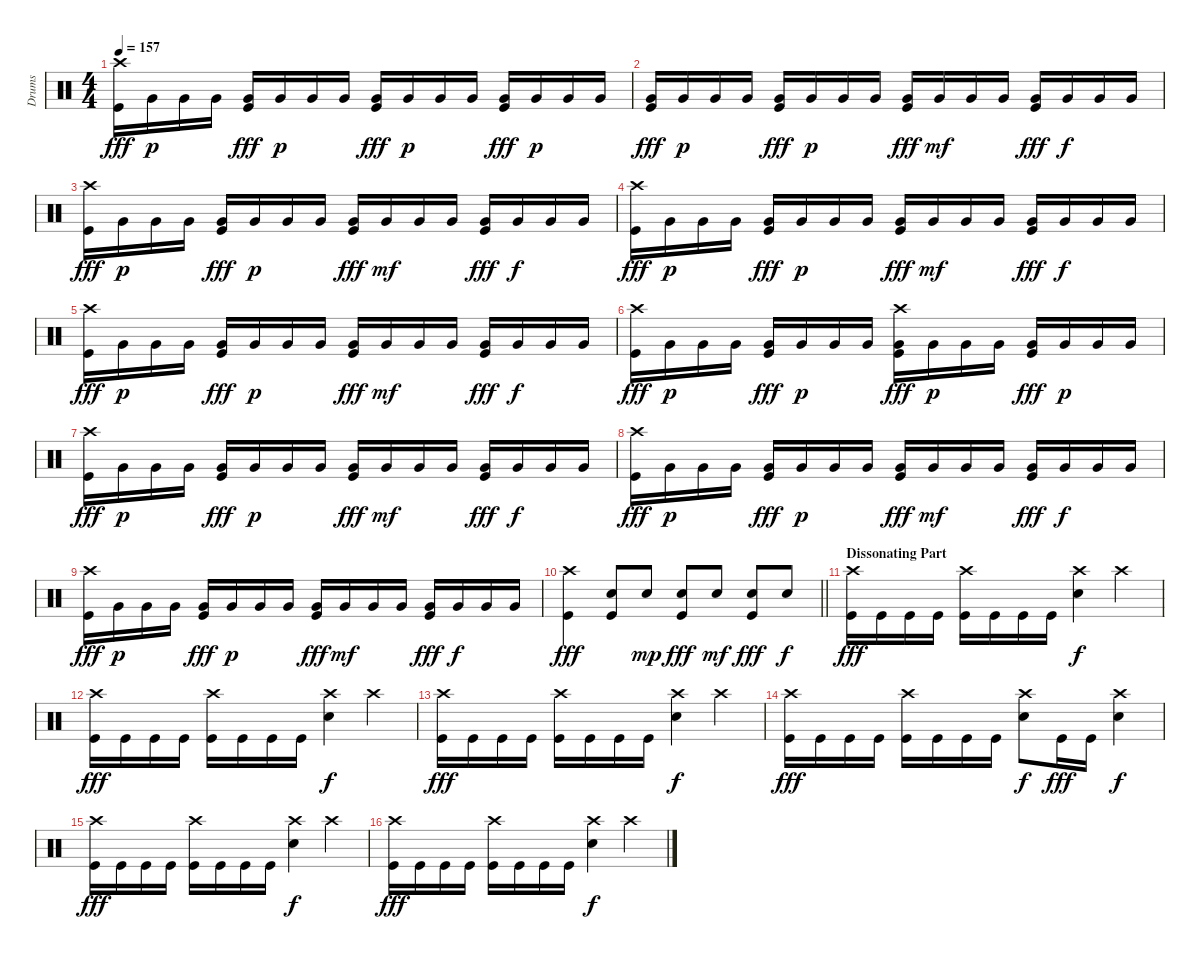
\track ("Drums" "Drums") {instrument percussion}
\staff {score}
\articulation defaults
\ts (4 4)
\tempo 157
\clef neutral
\ks c
("Crash high (hit)" "Kick (hit)").16{dy fff} "Very Low Tom (hit)".16{dy p} "Very Low Tom (hit)".16 "Very Low Tom (hit)".16 ("Very Low Tom (hit)" "Kick (hit)").16{dy fff} "Very Low Tom (hit)".16{dy p} "Very Low Tom (hit)".16 "Very Low Tom (hit)".16 ("Very Low Tom (hit)" "Kick (hit)").16{dy fff} "Very Low Tom (hit)".16{dy p} "Very Low Tom (hit)".16 "Very Low Tom (hit)".16 ("Very Low Tom (hit)" "Kick (hit)").16{dy fff} "Very Low Tom (hit)".16{dy p} "Very Low Tom (hit)".16 "Very Low Tom (hit)".16 |
("Very Low Tom (hit)" "Kick (hit)").16{dy fff} "Very Low Tom (hit)".16{dy p} "Very Low Tom (hit)".16 "Very Low Tom (hit)".16 ("Very Low Tom (hit)" "Kick (hit)").16{dy fff} "Very Low Tom (hit)".16{dy p} "Very Low Tom (hit)".16 "Very Low Tom (hit)".16 ("Very Low Tom (hit)" "Kick (hit)").16{dy fff} "Very Low Tom (hit)".16{dy mf} "Very Low Tom (hit)".16 "Very Low Tom (hit)".16 ("Very Low Tom (hit)" "Kick (hit)").16{dy fff} "Very Low Tom (hit)".16{dy f} "Very Low Tom (hit)".16 "Very Low Tom (hit)".16 |
("Crash high (hit)" "Kick (hit)").16{dy fff} "Very Low Tom (hit)".16{dy p} "Very Low Tom (hit)".16 "Very Low Tom (hit)".16 ("Very Low Tom (hit)" "Kick (hit)").16{dy fff} "Very Low Tom (hit)".16{dy p} "Very Low Tom (hit)".16 "Very Low Tom (hit)".16 ("Very Low Tom (hit)" "Kick (hit)").16{dy fff} "Very Low Tom (hit)".16{dy mf} "Very Low Tom (hit)".16 "Very Low Tom (hit)".16 ("Very Low Tom (hit)" "Kick (hit)").16{dy fff} "Very Low Tom (hit)".16{dy f} "Very Low Tom (hit)".16 "Very Low Tom (hit)".16 |
("Crash high (hit)" "Kick (hit)").16{dy fff} "Very Low Tom (hit)".16{dy p} "Very Low Tom (hit)".16 "Very Low Tom (hit)".16 ("Very Low Tom (hit)" "Kick (hit)").16{dy fff} "Very Low Tom (hit)".16{dy p} "Very Low Tom (hit)".16 "Very Low Tom (hit)".16 ("Very Low Tom (hit)" "Kick (hit)").16{dy fff} "Very Low Tom (hit)".16{dy mf} "Very Low Tom (hit)".16 "Very Low Tom (hit)".16 ("Very Low Tom (hit)" "Kick (hit)").16{dy fff} "Very Low Tom (hit)".16{dy f} "Very Low Tom (hit)".16 "Very Low Tom (hit)".16 |
("Crash high (hit)" "Kick (hit)").16{dy fff} "Very Low Tom (hit)".16{dy p} "Very Low Tom (hit)".16 "Very Low Tom (hit)".16 ("Very Low Tom (hit)" "Kick (hit)").16{dy fff} "Very Low Tom (hit)".16{dy p} "Very Low Tom (hit)".16 "Very Low Tom (hit)".16 ("Very Low Tom (hit)" "Kick (hit)").16{dy fff} "Very Low Tom (hit)".16{dy mf} "Very Low Tom (hit)".16 "Very Low Tom (hit)".16 ("Very Low Tom (hit)" "Kick (hit)").16{dy fff} "Very Low Tom (hit)".16{dy f} "Very Low Tom (hit)".16 "Very Low Tom (hit)".16 |
("Crash high (hit)" "Kick (hit)").16{dy fff} "Very Low Tom (hit)".16{dy p} "Very Low Tom (hit)".16 "Very Low Tom (hit)".16 ("Very Low Tom (hit)" "Kick (hit)").16{dy fff} "Very Low Tom (hit)".16{dy p} "Very Low Tom (hit)".16 "Very Low Tom (hit)".16 ("Crash high (hit)" "Very Low Tom (hit)" "Kick (hit)").16{dy fff} "Very Low Tom (hit)".16{dy p} "Very Low Tom (hit)".16 "Very Low Tom (hit)".16 ("Very Low Tom (hit)" "Kick (hit)").16{dy fff} "Very Low Tom (hit)".16{dy p} "Very Low Tom (hit)".16 "Very Low Tom (hit)".16 |
("Crash high (hit)" "Kick (hit)").16{dy fff} "Very Low Tom (hit)".16{dy p} "Very Low Tom (hit)".16 "Very Low Tom (hit)".16 ("Very Low Tom (hit)" "Kick (hit)").16{dy fff} "Very Low Tom (hit)".16{dy p} "Very Low Tom (hit)".16 "Very Low Tom (hit)".16 ("Very Low Tom (hit)" "Kick (hit)").16{dy fff} "Very Low Tom (hit)".16{dy mf} "Very Low Tom (hit)".16 "Very Low Tom (hit)".16 ("Very Low Tom (hit)" "Kick (hit)").16{dy fff} "Very Low Tom (hit)".16{dy f} "Very Low Tom (hit)".16 "Very Low Tom (hit)".16 |
("Crash high (hit)" "Kick (hit)").16{dy fff} "Very Low Tom (hit)".16{dy p} "Very Low Tom (hit)".16 "Very Low Tom (hit)".16 ("Very Low Tom (hit)" "Kick (hit)").16{dy fff} "Very Low Tom (hit)".16{dy p} "Very Low Tom (hit)".16 "Very Low Tom (hit)".16 ("Very Low Tom (hit)" "Kick (hit)").16{dy fff} "Very Low Tom (hit)".16{dy mf} "Very Low Tom (hit)".16 "Very Low Tom (hit)".16 ("Very Low Tom (hit)" "Kick (hit)").16{dy fff} "Very Low Tom (hit)".16{dy f} "Very Low Tom (hit)".16 "Very Low Tom (hit)".16 |
("Crash high (hit)" "Kick (hit)").16{dy fff} "Very Low Tom (hit)".16{dy p} "Very Low Tom (hit)".16 "Very Low Tom (hit)".16 ("Very Low Tom (hit)" "Kick (hit)").16{dy fff} "Very Low Tom (hit)".16{dy p} "Very Low Tom (hit)".16 "Very Low Tom (hit)".16 ("Very Low Tom (hit)" "Kick (hit)").16{dy fff} "Very Low Tom (hit)".16{dy mf} "Very Low Tom (hit)".16 "Very Low Tom (hit)".16 ("Very Low Tom (hit)" "Kick (hit)").16{dy fff} "Very Low Tom (hit)".16{dy f} "Very Low Tom (hit)".16 "Very Low Tom (hit)".16 |
\barLineRight lightlight
("Crash high (hit)" "Kick (hit)").4{dy fff} ("Snare (hit) 2" "Kick (hit)").8 "Snare (hit) 2".8{dy mp} ("Snare (hit) 2" "Kick (hit)").8{dy fff} "Snare (hit) 2".8{dy mf} ("Snare (hit) 2" "Kick (hit)").8{dy fff} "Snare (hit) 2".8{dy f} |
\section ("" "Dissonating Part")
("Crash high (hit)" "Kick (hit)").16{dy fff} "Kick (hit)".16 "Kick (hit)".16 "Kick (hit)".16 ("Crash high (hit)" "Kick (hit)").16 "Kick (hit)".16 "Kick (hit)".16 "Kick (hit)".16 ("Crash high (hit)" "Snare (hit) 2").4{dy f} "Crash high (hit)".4 |
("Crash high (hit)" "Kick (hit)").16{dy fff} "Kick (hit)".16 "Kick (hit)".16 "Kick (hit)".16 ("Crash high (hit)" "Kick (hit)").16 "Kick (hit)".16 "Kick (hit)".16 "Kick (hit)".16 ("Crash high (hit)" "Snare (hit) 2").4{dy f} "Crash high (hit)".4 |
("Crash high (hit)" "Kick (hit)").16{dy fff} "Kick (hit)".16 "Kick (hit)".16 "Kick (hit)".16 ("Crash high (hit)" "Kick (hit)").16 "Kick (hit)".16 "Kick (hit)".16 "Kick (hit)".16 ("Crash high (hit)" "Snare (hit) 2").4{dy f} "Crash high (hit)".4 |
("Crash high (hit)" "Kick (hit)").16{dy fff} "Kick (hit)".16 "Kick (hit)".16 "Kick (hit)".16 ("Crash high (hit)" "Kick (hit)").16 "Kick (hit)".16 "Kick (hit)".16 "Kick (hit)".16 ("Crash high (hit)" "Snare (hit) 2").8{dy f} "Kick (hit)".16{dy fff} "Kick (hit)".16 ("Crash high (hit)" "Snare (hit) 2").4{dy f} |
("Crash high (hit)" "Kick (hit)").16{dy fff} "Kick (hit)".16 "Kick (hit)".16 "Kick (hit)".16 ("Crash high (hit)" "Kick (hit)").16 "Kick (hit)".16 "Kick (hit)".16 "Kick (hit)".16 ("Crash high (hit)" "Snare (hit) 2").4{dy f} "Crash high (hit)".4 |
("Crash high (hit)" "Kick (hit)").16{dy fff} "Kick (hit)".16 "Kick (hit)".16 "Kick (hit)".16 ("Crash high (hit)" "Kick (hit)").16 "Kick (hit)".16 "Kick (hit)".16 "Kick (hit)".16 ("Crash high (hit)" "Snare (hit) 2").4{dy f} "Crash high (hit)".4
